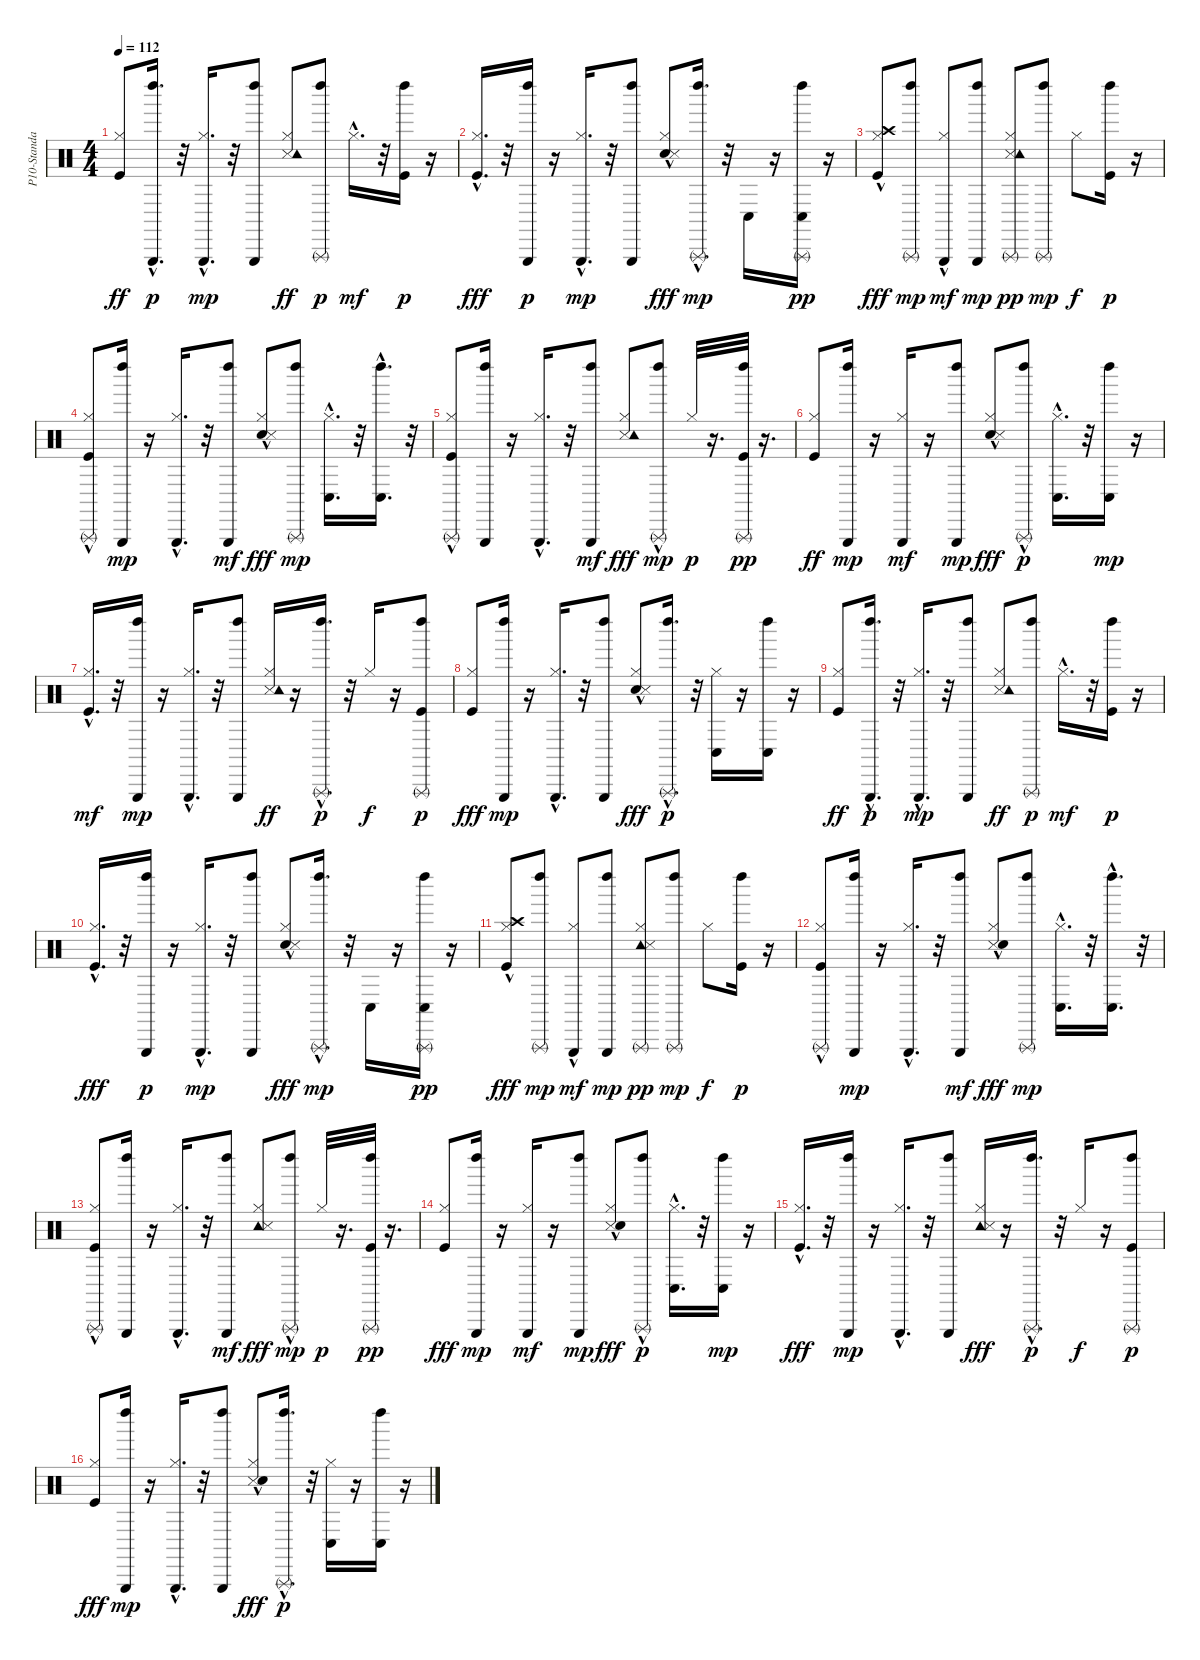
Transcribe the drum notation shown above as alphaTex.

\track ("P10-Standard Kit" "P10-Standa") {instrument percussion}
\staff {score}
\articulation defaults
\ts (4 4)
\tempo 112
\clef neutral
\ks c
("Kick (hit)" "Hi-Hat (closed)").8{dy ff} ("Triangle (hit)"{hac} "Left Maraca (hit)").16{d dy p} r.32 ("Hi-Hat (closed)" "Triangle (hit)"{hac}).16{d dy mp} r.32 ("Left Maraca (hit)" "Triangle (hit)").8 ("Snare (side stick) 3" "Hi-Hat (closed)" "Tambourine (hit)").8{dy ff} ("Triangle (rnute)" "Left Maraca (hit)").8{dy p} "Hi-Hat (closed)"{hac}.16{d dy mf} r.32 ("Kick (hit)" "Left Maraca (hit)").16{dy p} r.16 |
("Kick (hit)"{hac} "Hi-Hat (closed)").16{d dy fff} r.32 ("Triangle (hit)" "Left Maraca (hit)").16{dy p} r.16 ("Hi-Hat (closed)" "Triangle (hit)"{hac}).16{d dy mp} r.32 ("Triangle (hit)" "Left Maraca (hit)").8 ("Snare (hit)" "Hi-Hat (closed)" "Snare (side stick) 3"{hac}).8{dy fff} ("Triangle (rnute)"{hac} "Left Maraca (hit)").16{d dy mp} r.32 "Conga low (hit)".16 r.16 ("Triangle (rnute)" "Left Maraca (hit)" "Conga low (hit)").16{dy pp} r.16 |
("Crash high (hit)" "Kick (hit)"{hac} "Hi-Hat (closed)").8{dy fff} ("Left Maraca (hit)" "Triangle (rnute)").8{dy mp} ("Hi-Hat (closed)" "Triangle (hit)"{hac}).8{dy mf} ("Triangle (hit)" "Left Maraca (hit)").8{dy mp} ("Snare (side stick) 3" "Hi-Hat (closed)" "Tambourine (hit)" "Triangle (rnute)").8{dy pp} ("Left Maraca (hit)" "Triangle (rnute)").8{dy mp} "Hi-Hat (closed)".8{dy f} ("Kick (hit)" "Left Maraca (hit)").16{dy p} r.16 |
("Kick (hit)"{hac} "Hi-Hat (closed)" "Triangle (rnute)").8 ("Left Maraca (hit)" "Triangle (hit)").16{dy mp} r.16 ("Hi-Hat (closed)"{hac} "Triangle (hit)"{hac}).16{d} r.32 ("Left Maraca (hit)" "Triangle (hit)").8{dy mf} ("Snare (hit)" "Hi-Hat (closed)" "Snare (side stick) 3"{hac}).8{dy fff} ("Triangle (rnute)" "Left Maraca (hit)").8{dy mp} ("Hi-Hat (closed)"{hac} "Conga low (hit)").16{d} r.32 ("Left Maraca (hit)" "Conga low (hit)"{hac}).16{d} r.32 |
("Kick (hit)"{hac} "Hi-Hat (closed)"{hac} "Triangle (rnute)").8 ("Left Maraca (hit)" "Triangle (hit)").16 r.16 ("Hi-Hat (closed)"{hac} "Triangle (hit)"{hac}).16{d} r.32 ("Left Maraca (hit)" "Triangle (hit)").8{dy mf} ("Snare (side stick) 3" "Tambourine (hit)" "Hi-Hat (closed)").8{dy fff} ("Triangle (rnute)"{hac} "Left Maraca (hit)").8{dy mp} "Hi-Hat (closed)".32{dy p} r.16{d} ("Kick (hit)" "Left Maraca (hit)" "Triangle (rnute)").32{dy pp} r.16{d} |
("Kick (hit)" "Hi-Hat (closed)").8{dy ff} ("Left Maraca (hit)" "Triangle (hit)").16{dy mp} r.16 ("Hi-Hat (closed)" "Triangle (hit)").16{dy mf} r.16 ("Left Maraca (hit)" "Triangle (hit)").8{dy mp} ("Snare (hit)" "Snare (side stick) 3" "Hi-Hat (closed)"{hac}).8{dy fff} ("Left Maraca (hit)" "Triangle (rnute)"{hac}).8{dy p} ("Hi-Hat (closed)"{hac} "Conga low (hit)").16{d} r.32 ("Left Maraca (hit)" "Conga low (hit)").16{dy mp} r.16 |
("Kick (hit)"{hac} "Hi-Hat (closed)").16{d dy mf} r.32 ("Left Maraca (hit)" "Triangle (hit)").16{dy mp} r.16 ("Hi-Hat (closed)" "Triangle (hit)"{hac}).16{d} r.32 ("Left Maraca (hit)" "Triangle (hit)").8 ("Snare (side stick) 3" "Hi-Hat (closed)" "Tambourine (hit)").16{dy ff} r.16 ("Triangle (rnute)"{hac} "Left Maraca (hit)").16{d dy p} r.32 "Hi-Hat (closed)".16{dy f} r.16 ("Kick (hit)" "Left Maraca (hit)" "Triangle (rnute)").8{dy p} |
("Kick (hit)" "Hi-Hat (closed)").8{dy fff} ("Left Maraca (hit)" "Triangle (hit)").16{dy mp} r.16 ("Hi-Hat (closed)" "Triangle (hit)"{hac}).16{d} r.32 ("Left Maraca (hit)" "Triangle (hit)").8 ("Snare (hit)"{hac} "Hi-Hat (closed)" "Snare (side stick) 3").8{dy fff} ("Left Maraca (hit)" "Triangle (rnute)"{hac}).16{d dy p} r.32 ("Hi-Hat (closed)" "Conga low (hit)").16 r.16 ("Left Maraca (hit)" "Conga low (hit)").16 r.16 |
("Kick (hit)" "Hi-Hat (closed)").8{dy ff} ("Triangle (hit)"{hac} "Left Maraca (hit)").16{d dy p} r.32 ("Hi-Hat (closed)" "Triangle (hit)"{hac}).16{d dy mp} r.32 ("Left Maraca (hit)" "Triangle (hit)").8 ("Snare (side stick) 3" "Hi-Hat (closed)" "Tambourine (hit)").8{dy ff} ("Triangle (rnute)" "Left Maraca (hit)").8{dy p} "Hi-Hat (closed)"{hac}.16{d dy mf} r.32 ("Kick (hit)" "Left Maraca (hit)").16{dy p} r.16 |
("Kick (hit)"{hac} "Hi-Hat (closed)").16{d dy fff} r.32 ("Triangle (hit)" "Left Maraca (hit)").16{dy p} r.16 ("Hi-Hat (closed)" "Triangle (hit)"{hac}).16{d dy mp} r.32 ("Triangle (hit)" "Left Maraca (hit)").8 ("Snare (hit)" "Hi-Hat (closed)" "Snare (side stick) 3"{hac}).8{dy fff} ("Triangle (rnute)"{hac} "Left Maraca (hit)").16{d dy mp} r.32 "Conga low (hit)".16 r.16 ("Triangle (rnute)" "Left Maraca (hit)" "Conga low (hit)").16{dy pp} r.16 |
("Hi-Hat (closed)" "Kick (hit)"{hac} "Crash high (hit)").8{dy fff} ("Left Maraca (hit)" "Triangle (rnute)").8{dy mp} ("Hi-Hat (closed)" "Triangle (hit)"{hac}).8{dy mf} ("Triangle (hit)" "Left Maraca (hit)").8{dy mp} ("Hi-Hat (closed)" "Tambourine (hit)" "Snare (side stick) 3" "Triangle (rnute)").8{dy pp} ("Left Maraca (hit)" "Triangle (rnute)").8{dy mp} "Hi-Hat (closed)".8{dy f} ("Kick (hit)" "Left Maraca (hit)").16{dy p} r.16 |
("Hi-Hat (closed)" "Kick (hit)"{hac} "Triangle (rnute)").8 ("Left Maraca (hit)" "Triangle (hit)").16{dy mp} r.16 ("Hi-Hat (closed)"{hac} "Triangle (hit)"{hac}).16{d} r.32 ("Left Maraca (hit)" "Triangle (hit)").8{dy mf} ("Hi-Hat (closed)" "Snare (side stick) 3"{hac} "Snare (hit)").8{dy fff} ("Triangle (rnute)" "Left Maraca (hit)").8{dy mp} ("Hi-Hat (closed)"{hac} "Conga low (hit)").16{d} r.32 ("Left Maraca (hit)" "Conga low (hit)"{hac}).16{d} r.32 |
("Hi-Hat (closed)"{hac} "Kick (hit)"{hac} "Triangle (rnute)").8 ("Left Maraca (hit)" "Triangle (hit)").16 r.16 ("Hi-Hat (closed)"{hac} "Triangle (hit)"{hac}).16{d} r.32 ("Left Maraca (hit)" "Triangle (hit)").8{dy mf} ("Tambourine (hit)" "Hi-Hat (closed)" "Snare (side stick) 3").8{dy fff} ("Triangle (rnute)"{hac} "Left Maraca (hit)").8{dy mp} "Hi-Hat (closed)".32{dy p} r.16{d} ("Kick (hit)" "Left Maraca (hit)" "Triangle (rnute)").32{dy pp} r.16{d} |
("Hi-Hat (closed)" "Kick (hit)").8{dy fff} ("Left Maraca (hit)" "Triangle (hit)").16{dy mp} r.16 ("Hi-Hat (closed)" "Triangle (hit)").16{dy mf} r.16 ("Left Maraca (hit)" "Triangle (hit)").8{dy mp} ("Snare (side stick) 3" "Hi-Hat (closed)"{hac} "Snare (hit)").8{dy fff} ("Left Maraca (hit)" "Triangle (rnute)"{hac}).8{dy p} ("Hi-Hat (closed)"{hac} "Conga low (hit)").16{d} r.32 ("Left Maraca (hit)" "Conga low (hit)").16{dy mp} r.16 |
("Hi-Hat (closed)" "Kick (hit)"{hac}).16{d dy fff} r.32 ("Left Maraca (hit)" "Triangle (hit)").16{dy mp} r.16 ("Hi-Hat (closed)" "Triangle (hit)"{hac}).16{d} r.32 ("Left Maraca (hit)" "Triangle (hit)").8 ("Hi-Hat (closed)" "Tambourine (hit)" "Snare (side stick) 3").16{dy fff} r.16 ("Triangle (rnute)"{hac} "Left Maraca (hit)").16{d dy p} r.32 "Hi-Hat (closed)".16{dy f} r.16 ("Kick (hit)" "Left Maraca (hit)" "Triangle (rnute)").8{dy p} |
("Hi-Hat (closed)" "Kick (hit)").8{dy fff} ("Left Maraca (hit)" "Triangle (hit)").16{dy mp} r.16 ("Hi-Hat (closed)" "Triangle (hit)"{hac}).16{d} r.32 ("Left Maraca (hit)" "Triangle (hit)").8 ("Hi-Hat (closed)" "Snare (side stick) 3" "Snare (hit)"{hac}).8{dy fff} ("Left Maraca (hit)" "Triangle (rnute)"{hac}).16{d dy p} r.32 ("Hi-Hat (closed)" "Conga low (hit)").16 r.16 ("Left Maraca (hit)" "Conga low (hit)").16 r.16
